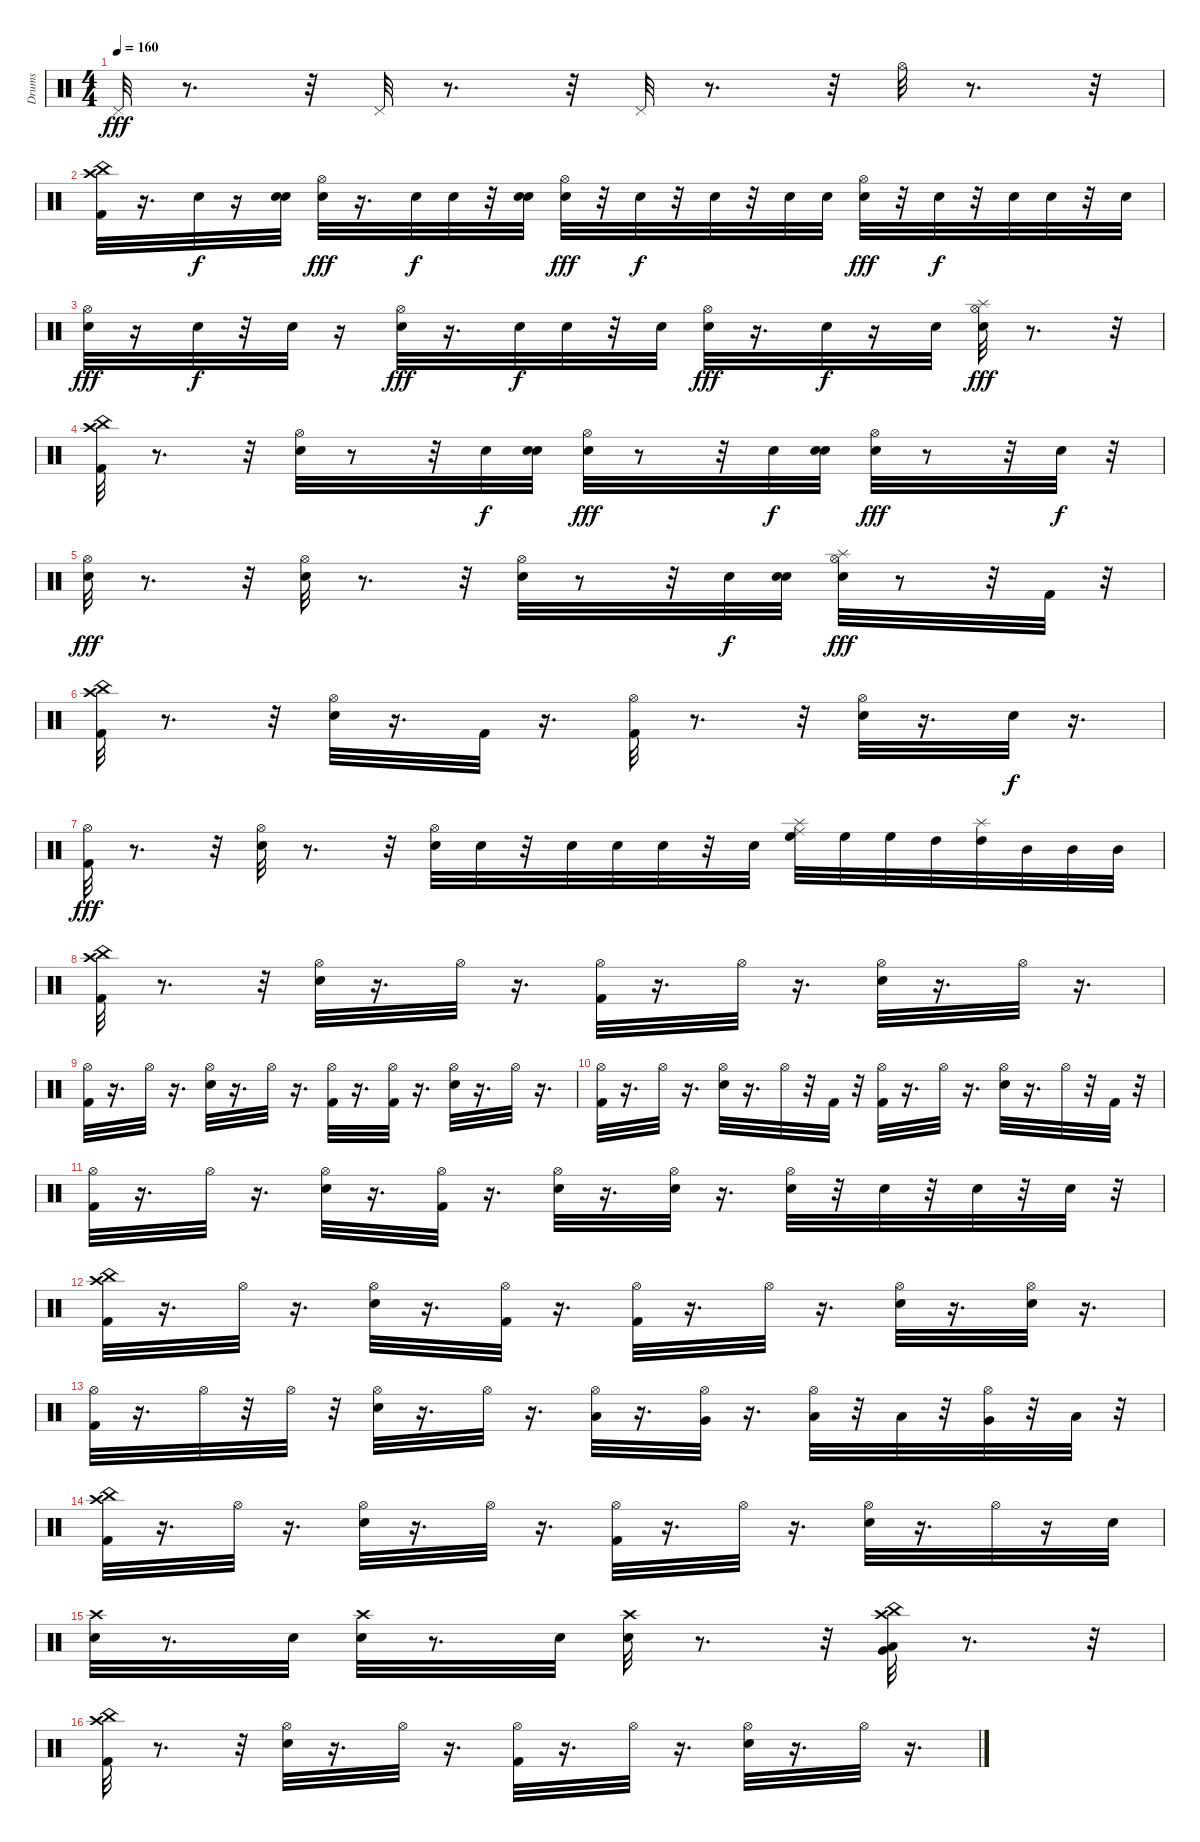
\track ("Drums" "Drums") {instrument percussion}
\staff {score}
\articulation defaults
\ts (4 4)
\tempo 160
\clef neutral
\ks c "Pedal Hi-Hat (hit)".32{dy fff}
r.8{d} r.32 "Pedal Hi-Hat (hit)".32 r.8{d} r.32 "Pedal Hi-Hat (hit)".32 r.8{d} r.32 "Hi-Hat (open)".32 r.8{d} r.32 |
("Kick (hit) 2" "China (hit)" "Crash high (hit)").32 r.16{d} "Electric Snare (hit)".32{dy f} r.16 ("Electric Snare (hit)" "Electric Snare (hit)").32 ("Electric Snare (hit)" "Hi-Hat (open)").32{dy fff} r.16{d} "Electric Snare (hit)".32{dy f} "Electric Snare (hit)".32 r.32 ("Electric Snare (hit)" "Electric Snare (hit)").32 ("Electric Snare (hit)" "Hi-Hat (open)").32{dy fff} r.32 "Electric Snare (hit)".32{dy f} r.32 "Electric Snare (hit)".32 r.32 "Electric Snare (hit)".32 "Electric Snare (hit)".32 ("Electric Snare (hit)" "Hi-Hat (open)").32{dy fff} r.32 "Electric Snare (hit)".32{dy f} r.32 "Electric Snare (hit)".32 "Electric Snare (hit)".32 r.32 "Electric Snare (hit)".32 |
("Electric Snare (hit)" "Hi-Hat (open)").32{dy fff} r.16 "Electric Snare (hit)".32{dy f} r.32 "Electric Snare (hit)".32 r.16 ("Electric Snare (hit)" "Hi-Hat (open)").32{dy fff} r.16{d} "Electric Snare (hit)".32{dy f} "Electric Snare (hit)".32 r.32 "Electric Snare (hit)".32 ("Electric Snare (hit)" "Hi-Hat (open)").32{dy fff} r.16{d} "Electric Snare (hit)".32{dy f} r.16 "Electric Snare (hit)".32 ("Snare (hit) 2" "Splash (hit)" "Hi-Hat (open)").32{dy fff} r.8{d} r.32 |
("Crash high (hit)" "China (hit)" "Kick (hit) 2").32 r.8{d} r.32 ("Electric Snare (hit)" "Hi-Hat (open)").32 r.8 r.32 "Electric Snare (hit)".32{dy f} ("Electric Snare (hit)" "Electric Snare (hit)").32 ("Electric Snare (hit)" "Hi-Hat (open)").32{dy fff} r.8 r.32 "Electric Snare (hit)".32{dy f} ("Electric Snare (hit)" "Electric Snare (hit)").32 ("Electric Snare (hit)" "Hi-Hat (open)").32{dy fff} r.8 r.32 "Electric Snare (hit)".32{dy f} r.32 |
("Electric Snare (hit)" "Hi-Hat (open)").32{dy fff} r.8{d} r.32 ("Electric Snare (hit)" "Hi-Hat (open)").32 r.8{d} r.32 ("Electric Snare (hit)" "Hi-Hat (open)").32 r.8 r.32 "Electric Snare (hit)".32{dy f} ("Electric Snare (hit)" "Electric Snare (hit)").32 ("Snare (hit) 2" "Hi-Hat (open)" "Splash (hit)").32{dy fff} r.8 r.32 "Kick (hit) 2".32 r.32 |
("Crash high (hit)" "China (hit)" "Kick (hit) 2").32 r.8{d} r.32 ("Hi-Hat (open)" "Snare (hit) 2").32 r.16{d} "Kick (hit) 2".32 r.16{d} ("Hi-Hat (open)" "Kick (hit) 2").32 r.8{d} r.32 ("Hi-Hat (open)" "Snare (hit) 2").32 r.16{d} "Snare (hit) 2".32{dy f} r.16{d} |
("Kick (hit) 2" "Hi-Hat (open)").32{dy fff} r.8{d} r.32 ("Snare (hit) 2" "Hi-Hat (open)").32 r.8{d} r.32 ("Snare (hit) 2" "Hi-Hat (open)").32 "Snare (hit) 2".32 r.32 "Snare (hit) 2".32 "Snare (hit) 2".32 "Snare (hit) 2".32 r.32 "Snare (hit) 2".32 ("Ride (middle)" "High Floor Tom (hit)" "Splash (hit)").32 "High Floor Tom (hit)".32 "High Floor Tom (hit)".32 "High Tom (hit)".32 ("High Tom (hit)" "Splash (hit)").32 "Mid Tom (hit)".32 "Mid Tom (hit)".32 "Mid Tom (hit)".32 |
("China (hit)" "Crash high (hit)" "Kick (hit) 2").32 r.8{d} r.32 ("Hi-Hat (open)" "Snare (hit) 2").32 r.16{d} "Hi-Hat (open)".32 r.16{d} ("Hi-Hat (open)" "Kick (hit) 2").32 r.16{d} "Hi-Hat (open)".32 r.16{d} ("Hi-Hat (open)" "Snare (hit) 2").32 r.16{d} "Hi-Hat (open)".32 r.16{d} |
("Hi-Hat (open)" "Kick (hit) 2").32 r.16{d} "Hi-Hat (open)".32 r.16{d} ("Hi-Hat (open)" "Snare (hit) 2").32 r.16{d} "Hi-Hat (open)".32 r.16{d} ("Hi-Hat (open)" "Kick (hit) 2").32 r.16{d} ("Hi-Hat (open)" "Kick (hit) 2").32 r.16{d} ("Hi-Hat (open)" "Snare (hit) 2").32 r.16{d} "Hi-Hat (open)".32 r.16{d} |
("Hi-Hat (open)" "Kick (hit) 2").32 r.16{d} "Hi-Hat (open)".32 r.16{d} ("Hi-Hat (open)" "Snare (hit) 2").32 r.16{d} "Hi-Hat (open)".32 r.32 "Kick (hit) 2".32 r.32 ("Hi-Hat (open)" "Kick (hit) 2").32 r.16{d} "Hi-Hat (open)".32 r.16{d} ("Hi-Hat (open)" "Snare (hit) 2").32 r.16{d} "Hi-Hat (open)".32 r.32 "Kick (hit) 2".32 r.32 |
("Hi-Hat (open)" "Kick (hit) 2").32 r.16{d} "Hi-Hat (open)".32 r.16{d} ("Hi-Hat (open)" "Snare (hit) 2").32 r.16{d} ("Hi-Hat (open)" "Kick (hit) 2").32 r.16{d} ("Hi-Hat (open)" "Snare (hit) 2").32 r.16{d} ("Hi-Hat (open)" "Snare (hit) 2").32 r.16{d} ("Hi-Hat (open)" "Snare (hit) 2").32 r.32 "Snare (hit) 2".32 r.32 "Snare (hit) 2".32 r.32 "Snare (hit) 2".32 r.32 |
("Kick (hit) 2" "China (hit)" "Crash high (hit)").32 r.16{d} "Hi-Hat (open)".32 r.16{d} ("Hi-Hat (open)" "Snare (hit) 2").32 r.16{d} ("Hi-Hat (open)" "Kick (hit) 2").32 r.16{d} ("Hi-Hat (open)" "Kick (hit) 2").32 r.16{d} "Hi-Hat (open)".32 r.16{d} ("Hi-Hat (open)" "Snare (hit) 2").32 r.16{d} ("Hi-Hat (open)" "Snare (hit) 2").32 r.16{d} |
("Hi-Hat (open)" "Kick (hit) 2").32 r.16{d} "Hi-Hat (open)".32 r.32 "Hi-Hat (open)".32 r.32 ("Hi-Hat (open)" "Snare (hit) 2").32 r.16{d} "Hi-Hat (open)".32 r.16{d} ("Hi-Hat (open)" "Low Floor Tom (hit)").32 r.16{d} ("Hi-Hat (open)" "Very Low Tom (hit)").32 r.16{d} ("Hi-Hat (open)" "Low Tom (hit)").32 r.32 "Low Tom (hit)".32 r.32 ("Hi-Hat (open)" "Very Low Tom (hit)").32 r.32 "Low Floor Tom (hit)".32 r.32 |
("China (hit)" "Crash high (hit)" "Kick (hit) 2").32 r.16{d} "Hi-Hat (open)".32 r.16{d} ("Hi-Hat (open)" "Snare (hit) 2").32 r.16{d} "Hi-Hat (open)".32 r.16{d} ("Hi-Hat (open)" "Kick (hit) 2").32 r.16{d} "Hi-Hat (open)".32 r.16{d} ("Hi-Hat (open)" "Snare (hit) 2").32 r.16{d} "Hi-Hat (open)".32 r.16 "Snare (hit) 2".32 |
("Crash high (hit)" "Snare (hit) 2").32 r.8{d} "Snare (hit) 2".32 ("Crash high (hit)" "Snare (hit) 2").32 r.8{d} "Snare (hit) 2".32 ("Crash high (hit)" "Snare (hit) 2").32 r.8{d} r.32 ("Crash high (hit)" "China (hit)" "Very Low Tom (hit)" "Low Floor Tom (hit)").32 r.8{d} r.32 |
("China (hit)" "Crash high (hit)" "Kick (hit) 2").32 r.8{d} r.32 ("Hi-Hat (open)" "Snare (hit) 2").32 r.16{d} "Hi-Hat (open)".32 r.16{d} ("Hi-Hat (open)" "Kick (hit) 2").32 r.16{d} "Hi-Hat (open)".32 r.16{d} ("Hi-Hat (open)" "Snare (hit) 2").32 r.16{d} "Hi-Hat (open)".32 r.16{d}
